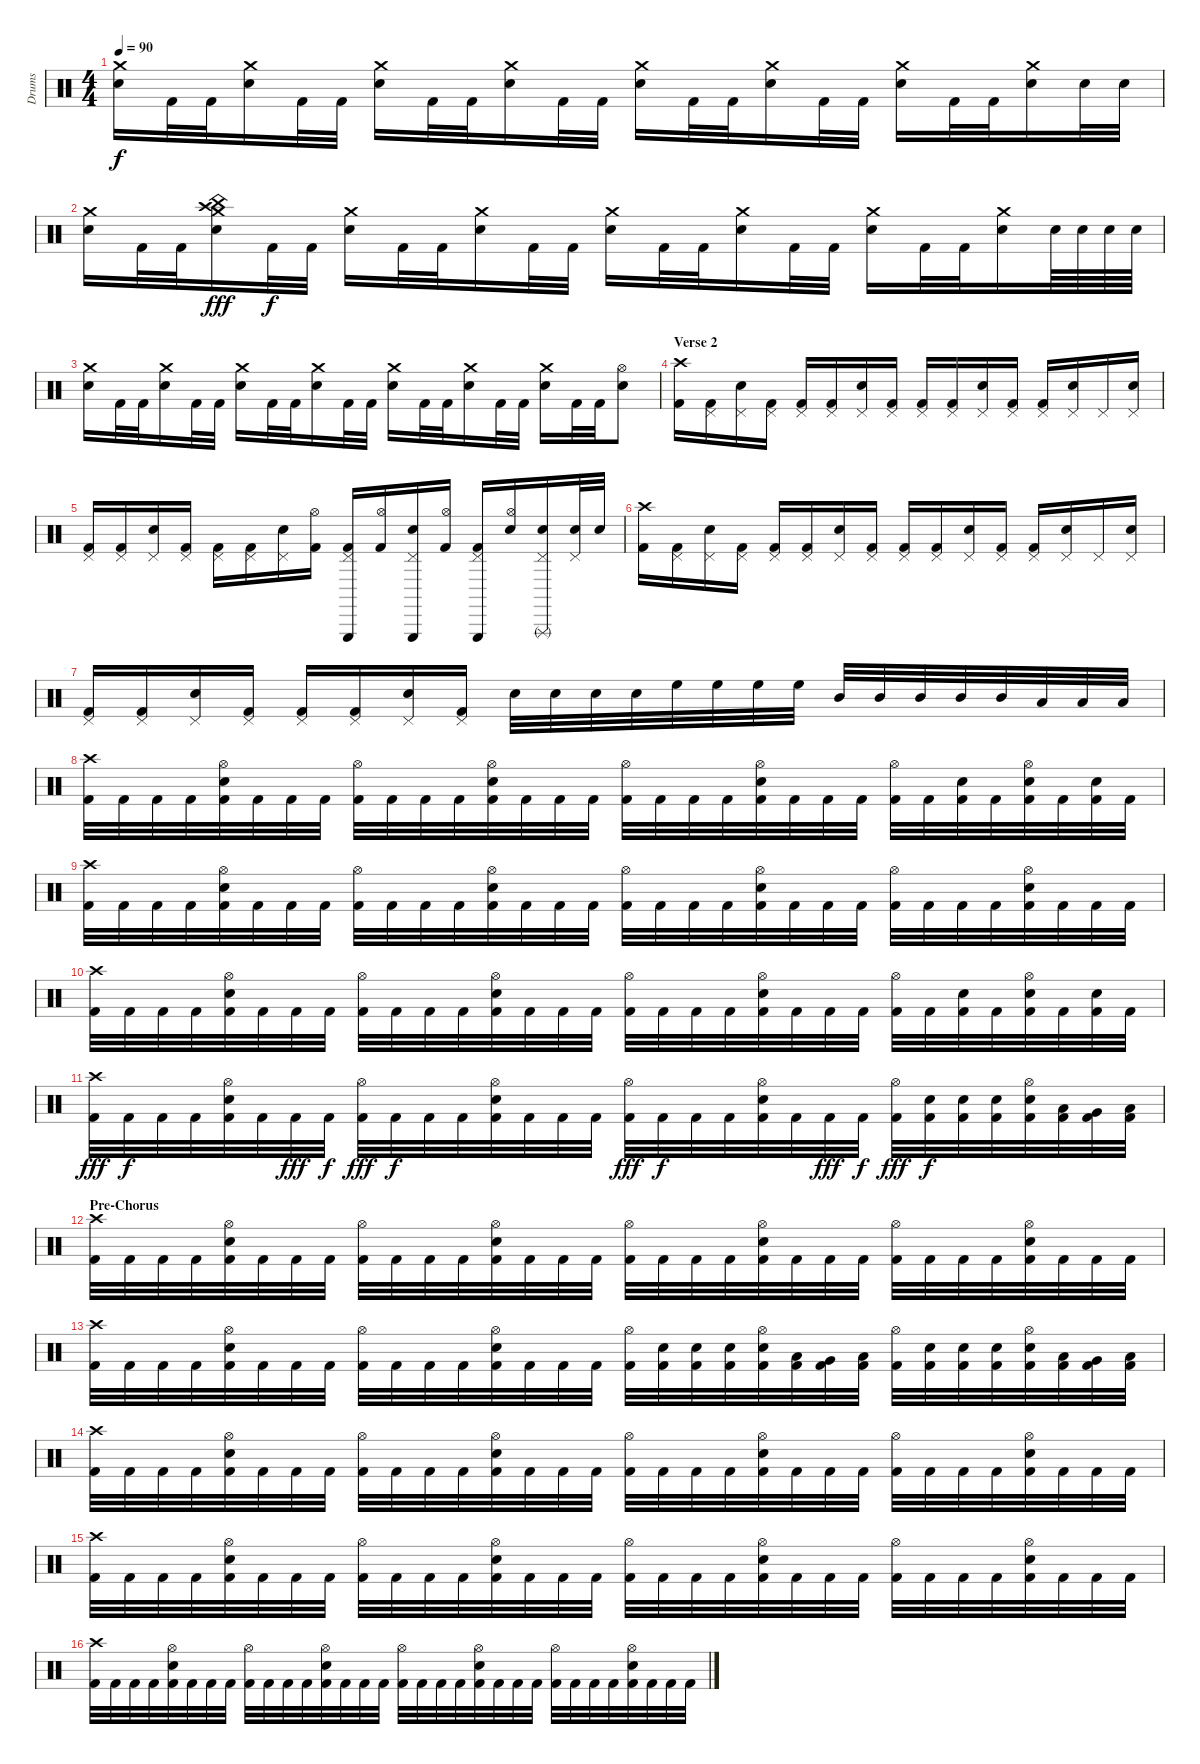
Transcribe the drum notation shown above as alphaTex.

\track ("Drums" "Drums") {instrument percussion}
\staff {score}
\articulation defaults
\ts (4 4)
\tempo 90
\clef neutral
\ks c
("Crash medium (hit)" "Electric Snare (hit)").16{dy f} "Kick (hit) 2".32 "Kick (hit) 2".32 ("Crash medium (hit)" "Electric Snare (hit)").16 "Kick (hit) 2".32 "Kick (hit) 2".32 ("Crash medium (hit)" "Electric Snare (hit)").16 "Kick (hit) 2".32 "Kick (hit) 2".32 ("Crash medium (hit)" "Electric Snare (hit)").16 "Kick (hit) 2".32 "Kick (hit) 2".32 ("Crash medium (hit)" "Electric Snare (hit)").16 "Kick (hit) 2".32 "Kick (hit) 2".32 ("Crash medium (hit)" "Electric Snare (hit)").16 "Kick (hit) 2".32 "Kick (hit) 2".32 ("Crash medium (hit)" "Electric Snare (hit)").16 "Kick (hit) 2".32 "Kick (hit) 2".32 ("Crash medium (hit)" "Electric Snare (hit)").16 "Electric Snare (hit)".32 "Electric Snare (hit)".32 |
("Crash medium (hit)" "Electric Snare (hit)").16 "Kick (hit) 2".32 "Kick (hit) 2".32 ("Crash high (hit)" "China (hit)" "Electric Snare (hit)" "Crash medium (hit)").16{dy fff} "Kick (hit) 2".32{dy f} "Kick (hit) 2".32 ("Crash medium (hit)" "Electric Snare (hit)").16 "Kick (hit) 2".32 "Kick (hit) 2".32 ("Crash medium (hit)" "Electric Snare (hit)").16 "Kick (hit) 2".32 "Kick (hit) 2".32 ("Crash medium (hit)" "Electric Snare (hit)").16 "Kick (hit) 2".32 "Kick (hit) 2".32 ("Crash medium (hit)" "Electric Snare (hit)").16 "Kick (hit) 2".32 "Kick (hit) 2".32 ("Crash medium (hit)" "Electric Snare (hit)").16 "Kick (hit) 2".32 "Kick (hit) 2".32 ("Crash medium (hit)" "Electric Snare (hit)").16 "Electric Snare (hit)".64 "Electric Snare (hit)".64 "Electric Snare (hit)".64 "Electric Snare (hit)".64 |
("Crash medium (hit)" "Electric Snare (hit)").16 "Kick (hit) 2".32 "Kick (hit) 2".32 ("Crash medium (hit)" "Electric Snare (hit)").16 "Kick (hit) 2".32 "Kick (hit) 2".32 ("Crash medium (hit)" "Electric Snare (hit)").16 "Kick (hit) 2".32 "Kick (hit) 2".32 ("Crash medium (hit)" "Electric Snare (hit)").16 "Kick (hit) 2".32 "Kick (hit) 2".32 ("Crash medium (hit)" "Electric Snare (hit)").16 "Kick (hit) 2".32 "Kick (hit) 2".32 ("Crash medium (hit)" "Electric Snare (hit)").16 "Kick (hit) 2".32 "Kick (hit) 2".32 ("Crash medium (hit)" "Electric Snare (hit)").16 "Kick (hit) 2".32 "Kick (hit) 2".32 ("Hi-Hat (open)" "Electric Snare (hit)").8 |
\section ("" "Verse 2")
("Crash high (hit)" "Kick (hit) 2").16 ("Pedal Hi-Hat (hit)" "Kick (hit) 2").16 ("Pedal Hi-Hat (hit)" "Electric Snare (hit)").16 ("Pedal Hi-Hat (hit)" "Kick (hit) 2").16 ("Pedal Hi-Hat (hit)" "Kick (hit) 2").16 ("Pedal Hi-Hat (hit)" "Kick (hit) 2").16 ("Pedal Hi-Hat (hit)" "Electric Snare (hit)").16 ("Pedal Hi-Hat (hit)" "Kick (hit) 2").16 ("Pedal Hi-Hat (hit)" "Kick (hit) 2").16 ("Pedal Hi-Hat (hit)" "Kick (hit) 2").16 ("Pedal Hi-Hat (hit)" "Electric Snare (hit)").16 ("Pedal Hi-Hat (hit)" "Kick (hit) 2").16 ("Pedal Hi-Hat (hit)" "Kick (hit) 2").16 ("Pedal Hi-Hat (hit)" "Electric Snare (hit)").16 "Pedal Hi-Hat (hit)".16 ("Pedal Hi-Hat (hit)" "Electric Snare (hit)").16 |
("Pedal Hi-Hat (hit)" "Kick (hit) 2").16 ("Pedal Hi-Hat (hit)" "Kick (hit) 2").16 ("Pedal Hi-Hat (hit)" "Electric Snare (hit)").16 ("Pedal Hi-Hat (hit)" "Kick (hit) 2").16 ("Pedal Hi-Hat (hit)" "Kick (hit) 2").16 ("Pedal Hi-Hat (hit)" "Kick (hit) 2").16 ("Pedal Hi-Hat (hit)" "Electric Snare (hit)").16 ("Hi-Hat (open)" "Kick (hit) 2").16 ("Pedal Hi-Hat (hit)" "Triangle (hit)" "Kick (hit) 2").16 ("Hi-Hat (open)" "Kick (hit) 2").16 ("Pedal Hi-Hat (hit)" "Electric Snare (hit)" "Triangle (hit)").16 ("Hi-Hat (open)" "Kick (hit) 2").16 ("Pedal Hi-Hat (hit)" "Triangle (hit)" "Kick (hit) 2").16 ("Hi-Hat (open)" "Electric Snare (hit)").16 ("Pedal Hi-Hat (hit)" "Electric Snare (hit)" "Triangle (rnute)").16 ("Pedal Hi-Hat (hit)" "Electric Snare (hit)").32 "Electric Snare (hit)".32 |
("Crash high (hit)" "Kick (hit) 2").16 ("Pedal Hi-Hat (hit)" "Kick (hit) 2").16 ("Pedal Hi-Hat (hit)" "Electric Snare (hit)").16 ("Pedal Hi-Hat (hit)" "Kick (hit) 2").16 ("Pedal Hi-Hat (hit)" "Kick (hit) 2").16 ("Pedal Hi-Hat (hit)" "Kick (hit) 2").16 ("Pedal Hi-Hat (hit)" "Electric Snare (hit)").16 ("Pedal Hi-Hat (hit)" "Kick (hit) 2").16 ("Pedal Hi-Hat (hit)" "Kick (hit) 2").16 ("Pedal Hi-Hat (hit)" "Kick (hit) 2").16 ("Pedal Hi-Hat (hit)" "Electric Snare (hit)").16 ("Pedal Hi-Hat (hit)" "Kick (hit) 2").16 ("Pedal Hi-Hat (hit)" "Kick (hit) 2").16 ("Pedal Hi-Hat (hit)" "Electric Snare (hit)").16 "Pedal Hi-Hat (hit)".16 ("Pedal Hi-Hat (hit)" "Electric Snare (hit)").16 |
("Pedal Hi-Hat (hit)" "Kick (hit) 2").16 ("Pedal Hi-Hat (hit)" "Kick (hit) 2").16 ("Pedal Hi-Hat (hit)" "Electric Snare (hit)").16 ("Pedal Hi-Hat (hit)" "Kick (hit) 2").16 ("Pedal Hi-Hat (hit)" "Kick (hit) 2").16 ("Pedal Hi-Hat (hit)" "Kick (hit) 2").16 ("Pedal Hi-Hat (hit)" "Electric Snare (hit)").16 ("Pedal Hi-Hat (hit)" "Kick (hit) 2").16 "Electric Snare (hit)".32 "Electric Snare (hit)".32 "Electric Snare (hit)".32 "Electric Snare (hit)".32 "High Floor Tom (hit)".32 "High Floor Tom (hit)".32 "High Floor Tom (hit)".32 "High Floor Tom (hit)".32 "Mid Tom (hit)".32 "Mid Tom (hit)".32 "Mid Tom (hit)".32 "Mid Tom (hit)".32 "Mid Tom (hit)".32 "Low Tom (hit)".32 "Low Tom (hit)".32 "Low Tom (hit)".32 |
("Crash high (hit)" "Kick (hit) 2").32 "Kick (hit) 2".32 "Kick (hit) 2".32 "Kick (hit) 2".32 ("Hi-Hat (open)" "Electric Snare (hit)" "Kick (hit) 2").32 "Kick (hit) 2".32 "Kick (hit) 2".32 "Kick (hit) 2".32 ("Hi-Hat (open)" "Kick (hit) 2").32 "Kick (hit) 2".32 "Kick (hit) 2".32 "Kick (hit) 2".32 ("Hi-Hat (open)" "Electric Snare (hit)" "Kick (hit) 2").32 "Kick (hit) 2".32 "Kick (hit) 2".32 "Kick (hit) 2".32 ("Hi-Hat (open)" "Kick (hit) 2").32 "Kick (hit) 2".32 "Kick (hit) 2".32 "Kick (hit) 2".32 ("Hi-Hat (open)" "Electric Snare (hit)" "Kick (hit) 2").32 "Kick (hit) 2".32 "Kick (hit) 2".32 "Kick (hit) 2".32 ("Hi-Hat (open)" "Kick (hit) 2").32 "Kick (hit) 2".32 ("Electric Snare (hit)" "Kick (hit) 2").32 "Kick (hit) 2".32 ("Hi-Hat (open)" "Electric Snare (hit)" "Kick (hit) 2").32 "Kick (hit) 2".32 ("Electric Snare (hit)" "Kick (hit) 2").32 "Kick (hit) 2".32 |
("Crash high (hit)" "Kick (hit) 2").32 "Kick (hit) 2".32 "Kick (hit) 2".32 "Kick (hit) 2".32 ("Hi-Hat (open)" "Electric Snare (hit)" "Kick (hit) 2").32 "Kick (hit) 2".32 "Kick (hit) 2".32 "Kick (hit) 2".32 ("Hi-Hat (open)" "Kick (hit) 2").32 "Kick (hit) 2".32 "Kick (hit) 2".32 "Kick (hit) 2".32 ("Hi-Hat (open)" "Electric Snare (hit)" "Kick (hit) 2").32 "Kick (hit) 2".32 "Kick (hit) 2".32 "Kick (hit) 2".32 ("Hi-Hat (open)" "Kick (hit) 2").32 "Kick (hit) 2".32 "Kick (hit) 2".32 "Kick (hit) 2".32 ("Hi-Hat (open)" "Electric Snare (hit)" "Kick (hit) 2").32 "Kick (hit) 2".32 "Kick (hit) 2".32 "Kick (hit) 2".32 ("Hi-Hat (open)" "Kick (hit) 2").32 "Kick (hit) 2".32 "Kick (hit) 2".32 "Kick (hit) 2".32 ("Hi-Hat (open)" "Electric Snare (hit)" "Kick (hit) 2").32 "Kick (hit) 2".32 "Kick (hit) 2".32 "Kick (hit) 2".32 |
("Crash high (hit)" "Kick (hit) 2").32 "Kick (hit) 2".32 "Kick (hit) 2".32 "Kick (hit) 2".32 ("Hi-Hat (open)" "Electric Snare (hit)" "Kick (hit) 2").32 "Kick (hit) 2".32 "Kick (hit) 2".32 "Kick (hit) 2".32 ("Hi-Hat (open)" "Kick (hit) 2").32 "Kick (hit) 2".32 "Kick (hit) 2".32 "Kick (hit) 2".32 ("Hi-Hat (open)" "Electric Snare (hit)" "Kick (hit) 2").32 "Kick (hit) 2".32 "Kick (hit) 2".32 "Kick (hit) 2".32 ("Hi-Hat (open)" "Kick (hit) 2").32 "Kick (hit) 2".32 "Kick (hit) 2".32 "Kick (hit) 2".32 ("Hi-Hat (open)" "Electric Snare (hit)" "Kick (hit) 2").32 "Kick (hit) 2".32 "Kick (hit) 2".32 "Kick (hit) 2".32 ("Hi-Hat (open)" "Kick (hit) 2").32 "Kick (hit) 2".32 ("Electric Snare (hit)" "Kick (hit) 2").32 "Kick (hit) 2".32 ("Hi-Hat (open)" "Electric Snare (hit)" "Kick (hit) 2").32 "Kick (hit) 2".32 ("Electric Snare (hit)" "Kick (hit) 2").32 "Kick (hit) 2".32 |
("Crash high (hit)" "Kick (hit) 2").32{dy fff} "Kick (hit) 2".32{dy f} "Kick (hit) 2".32 "Kick (hit) 2".32 ("Hi-Hat (open)" "Electric Snare (hit)" "Kick (hit) 2").32 "Kick (hit) 2".32 "Kick (hit) 2".32{dy fff} "Kick (hit) 2".32{dy f} ("Hi-Hat (open)" "Kick (hit) 2").32{dy fff} "Kick (hit) 2".32{dy f} "Kick (hit) 2".32 "Kick (hit) 2".32 ("Hi-Hat (open)" "Electric Snare (hit)" "Kick (hit) 2").32 "Kick (hit) 2".32 "Kick (hit) 2".32 "Kick (hit) 2".32 ("Hi-Hat (open)" "Kick (hit) 2").32{dy fff} "Kick (hit) 2".32{dy f} "Kick (hit) 2".32 "Kick (hit) 2".32 ("Hi-Hat (open)" "Electric Snare (hit)" "Kick (hit) 2").32 "Kick (hit) 2".32 "Kick (hit) 2".32{dy fff} "Kick (hit) 2".32{dy f} ("Hi-Hat (open)" "Kick (hit) 2").32{dy fff} ("Electric Snare (hit)" "Kick (hit) 2").32{dy f} ("Electric Snare (hit)" "Kick (hit) 2").32 ("Electric Snare (hit)" "Kick (hit) 2").32 ("Hi-Hat (open)" "Electric Snare (hit)" "Kick (hit) 2").32 ("Low Tom (hit)" "Kick (hit) 2").32 ("Very Low Tom (hit)" "Kick (hit) 2").32 ("Low Floor Tom (hit)" "Kick (hit) 2").32 |
\section ("" "Pre-Chorus")
("Crash high (hit)" "Kick (hit) 2").32 "Kick (hit) 2".32 "Kick (hit) 2".32 "Kick (hit) 2".32 ("Hi-Hat (open)" "Electric Snare (hit)" "Kick (hit) 2").32 "Kick (hit) 2".32 "Kick (hit) 2".32 "Kick (hit) 2".32 ("Hi-Hat (open)" "Kick (hit) 2").32 "Kick (hit) 2".32 "Kick (hit) 2".32 "Kick (hit) 2".32 ("Hi-Hat (open)" "Electric Snare (hit)" "Kick (hit) 2").32 "Kick (hit) 2".32 "Kick (hit) 2".32 "Kick (hit) 2".32 ("Hi-Hat (open)" "Kick (hit) 2").32 "Kick (hit) 2".32 "Kick (hit) 2".32 "Kick (hit) 2".32 ("Hi-Hat (open)" "Electric Snare (hit)" "Kick (hit) 2").32 "Kick (hit) 2".32 "Kick (hit) 2".32 "Kick (hit) 2".32 ("Hi-Hat (open)" "Kick (hit) 2").32 "Kick (hit) 2".32 "Kick (hit) 2".32 "Kick (hit) 2".32 ("Hi-Hat (open)" "Electric Snare (hit)" "Kick (hit) 2").32 "Kick (hit) 2".32 "Kick (hit) 2".32 "Kick (hit) 2".32 |
("Crash high (hit)" "Kick (hit) 2").32 "Kick (hit) 2".32 "Kick (hit) 2".32 "Kick (hit) 2".32 ("Hi-Hat (open)" "Electric Snare (hit)" "Kick (hit) 2").32 "Kick (hit) 2".32 "Kick (hit) 2".32 "Kick (hit) 2".32 ("Hi-Hat (open)" "Kick (hit) 2").32 "Kick (hit) 2".32 "Kick (hit) 2".32 "Kick (hit) 2".32 ("Hi-Hat (open)" "Electric Snare (hit)" "Kick (hit) 2").32 "Kick (hit) 2".32 "Kick (hit) 2".32 "Kick (hit) 2".32 ("Hi-Hat (open)" "Kick (hit) 2").32 ("Electric Snare (hit)" "Kick (hit) 2").32 ("Electric Snare (hit)" "Kick (hit) 2").32 ("Electric Snare (hit)" "Kick (hit) 2").32 ("Hi-Hat (open)" "Electric Snare (hit)" "Kick (hit) 2").32 ("Low Tom (hit)" "Kick (hit) 2").32 ("Very Low Tom (hit)" "Kick (hit) 2").32 ("Low Floor Tom (hit)" "Kick (hit) 2").32 ("Hi-Hat (open)" "Kick (hit) 2").32 ("Electric Snare (hit)" "Kick (hit) 2").32 ("Electric Snare (hit)" "Kick (hit) 2").32 ("Electric Snare (hit)" "Kick (hit) 2").32 ("Hi-Hat (open)" "Electric Snare (hit)" "Kick (hit) 2").32 ("Low Tom (hit)" "Kick (hit) 2").32 ("Very Low Tom (hit)" "Kick (hit) 2").32 ("Low Floor Tom (hit)" "Kick (hit) 2").32 |
("Crash high (hit)" "Kick (hit) 2").32 "Kick (hit) 2".32 "Kick (hit) 2".32 "Kick (hit) 2".32 ("Hi-Hat (open)" "Electric Snare (hit)" "Kick (hit) 2").32 "Kick (hit) 2".32 "Kick (hit) 2".32 "Kick (hit) 2".32 ("Hi-Hat (open)" "Kick (hit) 2").32 "Kick (hit) 2".32 "Kick (hit) 2".32 "Kick (hit) 2".32 ("Hi-Hat (open)" "Electric Snare (hit)" "Kick (hit) 2").32 "Kick (hit) 2".32 "Kick (hit) 2".32 "Kick (hit) 2".32 ("Hi-Hat (open)" "Kick (hit) 2").32 "Kick (hit) 2".32 "Kick (hit) 2".32 "Kick (hit) 2".32 ("Hi-Hat (open)" "Electric Snare (hit)" "Kick (hit) 2").32 "Kick (hit) 2".32 "Kick (hit) 2".32 "Kick (hit) 2".32 ("Hi-Hat (open)" "Kick (hit) 2").32 "Kick (hit) 2".32 "Kick (hit) 2".32 "Kick (hit) 2".32 ("Hi-Hat (open)" "Electric Snare (hit)" "Kick (hit) 2").32 "Kick (hit) 2".32 "Kick (hit) 2".32 "Kick (hit) 2".32 |
("Crash high (hit)" "Kick (hit) 2").32 "Kick (hit) 2".32 "Kick (hit) 2".32 "Kick (hit) 2".32 ("Hi-Hat (open)" "Electric Snare (hit)" "Kick (hit) 2").32 "Kick (hit) 2".32 "Kick (hit) 2".32 "Kick (hit) 2".32 ("Hi-Hat (open)" "Kick (hit) 2").32 "Kick (hit) 2".32 "Kick (hit) 2".32 "Kick (hit) 2".32 ("Hi-Hat (open)" "Electric Snare (hit)" "Kick (hit) 2").32 "Kick (hit) 2".32 "Kick (hit) 2".32 "Kick (hit) 2".32 ("Hi-Hat (open)" "Kick (hit) 2").32 "Kick (hit) 2".32 "Kick (hit) 2".32 "Kick (hit) 2".32 ("Hi-Hat (open)" "Electric Snare (hit)" "Kick (hit) 2").32 "Kick (hit) 2".32 "Kick (hit) 2".32 "Kick (hit) 2".32 ("Hi-Hat (open)" "Kick (hit) 2").32 "Kick (hit) 2".32 "Kick (hit) 2".32 "Kick (hit) 2".32 ("Hi-Hat (open)" "Electric Snare (hit)" "Kick (hit) 2").32 "Kick (hit) 2".32 "Kick (hit) 2".32 "Kick (hit) 2".32 |
("Crash high (hit)" "Kick (hit) 2").32 "Kick (hit) 2".32 "Kick (hit) 2".32 "Kick (hit) 2".32 ("Hi-Hat (open)" "Electric Snare (hit)" "Kick (hit) 2").32 "Kick (hit) 2".32 "Kick (hit) 2".32 "Kick (hit) 2".32 ("Hi-Hat (open)" "Kick (hit) 2").32 "Kick (hit) 2".32 "Kick (hit) 2".32 "Kick (hit) 2".32 ("Hi-Hat (open)" "Electric Snare (hit)" "Kick (hit) 2").32 "Kick (hit) 2".32 "Kick (hit) 2".32 "Kick (hit) 2".32 ("Hi-Hat (open)" "Kick (hit) 2").32 "Kick (hit) 2".32 "Kick (hit) 2".32 "Kick (hit) 2".32 ("Hi-Hat (open)" "Electric Snare (hit)" "Kick (hit) 2").32 "Kick (hit) 2".32 "Kick (hit) 2".32 "Kick (hit) 2".32 ("Hi-Hat (open)" "Kick (hit) 2").32 "Kick (hit) 2".32 "Kick (hit) 2".32 "Kick (hit) 2".32 ("Hi-Hat (open)" "Electric Snare (hit)" "Kick (hit) 2").32 "Kick (hit) 2".32 "Kick (hit) 2".32 "Kick (hit) 2".32
